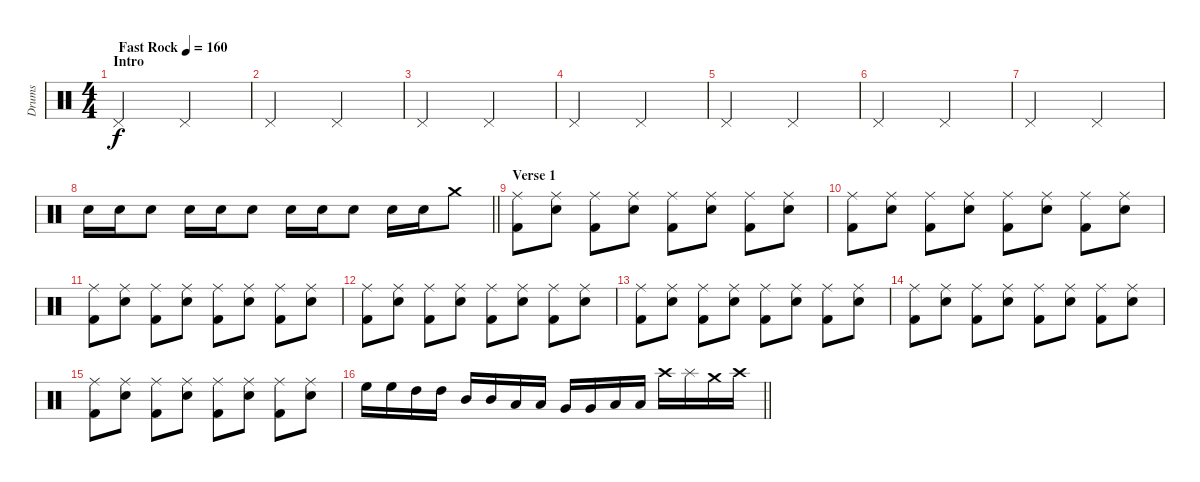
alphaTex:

\track ("Drums" "Drums") {instrument percussion}
\staff {score}
\articulation defaults
\ts (4 4)
\section ("" "Intro")
\tempo (160 "Fast Rock")
\clef neutral
\ks c "Pedal Hi-Hat (hit)".2{dy f} "Pedal Hi-Hat (hit)".2
|
"Pedal Hi-Hat (hit)".2 "Pedal Hi-Hat (hit)".2 |
"Pedal Hi-Hat (hit)".2 "Pedal Hi-Hat (hit)".2 |
"Pedal Hi-Hat (hit)".2 "Pedal Hi-Hat (hit)".2 |
"Pedal Hi-Hat (hit)".2 "Pedal Hi-Hat (hit)".2 |
"Pedal Hi-Hat (hit)".2 "Pedal Hi-Hat (hit)".2 |
"Pedal Hi-Hat (hit)".2 "Pedal Hi-Hat (hit)".2 |
\barLineRight lightlight "Electric Snare (hit)".16 "Electric Snare (hit)".16 "Electric Snare (hit)".8 "Electric Snare (hit)".16 "Electric Snare (hit)".16 "Electric Snare (hit)".8 "Electric Snare (hit)".16 "Electric Snare (hit)".16 "Electric Snare (hit)".8 "Electric Snare (hit)".16 "Electric Snare (hit)".16 "Crash medium (hit)".8
|
\section ("" "Verse 1")
("Ride (middle)" "Kick (hit) 2").8 ("Ride (middle)" "Electric Snare (hit)").8 ("Ride (middle)" "Kick (hit) 2").8 ("Ride (middle)" "Electric Snare (hit)").8 ("Ride (middle)" "Kick (hit) 2").8 ("Ride (middle)" "Electric Snare (hit)").8 ("Ride (middle)" "Kick (hit) 2").8 ("Ride (middle)" "Electric Snare (hit)").8 |
("Ride (middle)" "Kick (hit) 2").8 ("Ride (middle)" "Electric Snare (hit)").8 ("Ride (middle)" "Kick (hit) 2").8 ("Ride (middle)" "Electric Snare (hit)").8 ("Ride (middle)" "Kick (hit) 2").8 ("Ride (middle)" "Electric Snare (hit)").8 ("Ride (middle)" "Kick (hit) 2").8 ("Ride (middle)" "Electric Snare (hit)").8 |
("Ride (middle)" "Kick (hit) 2").8 ("Ride (middle)" "Electric Snare (hit)").8 ("Ride (middle)" "Kick (hit) 2").8 ("Ride (middle)" "Electric Snare (hit)").8 ("Ride (middle)" "Kick (hit) 2").8 ("Ride (middle)" "Electric Snare (hit)").8 ("Ride (middle)" "Kick (hit) 2").8 ("Ride (middle)" "Electric Snare (hit)").8 |
("Ride (middle)" "Kick (hit) 2").8 ("Ride (middle)" "Electric Snare (hit)").8 ("Ride (middle)" "Kick (hit) 2").8 ("Ride (middle)" "Electric Snare (hit)").8 ("Ride (middle)" "Kick (hit) 2").8 ("Ride (middle)" "Electric Snare (hit)").8 ("Ride (middle)" "Kick (hit) 2").8 ("Ride (middle)" "Electric Snare (hit)").8 |
("Ride (middle)" "Kick (hit) 2").8 ("Ride (middle)" "Electric Snare (hit)").8 ("Ride (middle)" "Kick (hit) 2").8 ("Ride (middle)" "Electric Snare (hit)").8 ("Ride (middle)" "Kick (hit) 2").8 ("Ride (middle)" "Electric Snare (hit)").8 ("Ride (middle)" "Kick (hit) 2").8 ("Ride (middle)" "Electric Snare (hit)").8 |
("Ride (middle)" "Kick (hit) 2").8 ("Ride (middle)" "Electric Snare (hit)").8 ("Ride (middle)" "Kick (hit) 2").8 ("Ride (middle)" "Electric Snare (hit)").8 ("Ride (middle)" "Kick (hit) 2").8 ("Ride (middle)" "Electric Snare (hit)").8 ("Ride (middle)" "Kick (hit) 2").8 ("Ride (middle)" "Electric Snare (hit)").8 |
("Ride (middle)" "Kick (hit) 2").8 ("Ride (middle)" "Electric Snare (hit)").8 ("Ride (middle)" "Kick (hit) 2").8 ("Ride (middle)" "Electric Snare (hit)").8 ("Ride (middle)" "Kick (hit) 2").8 ("Ride (middle)" "Electric Snare (hit)").8 ("Ride (middle)" "Kick (hit) 2").8 ("Ride (middle)" "Electric Snare (hit)").8 |
\barLineRight lightlight "High Floor Tom (hit)".16 "High Floor Tom (hit)".16 "High Tom (hit)".16 "High Tom (hit)".16 "Mid Tom (hit)".16 "Mid Tom (hit)".16 "Low Tom (hit)".16 "Low Tom (hit)".16 "Very Low Tom (hit)".16 "Very Low Tom (hit)".16 "Low Floor Tom (hit)".16 "Low Floor Tom (hit)".16 "Crash high (hit)".16 "Splash (hit)".16 "Crash medium (hit)".16 "Crash high (hit)".16
